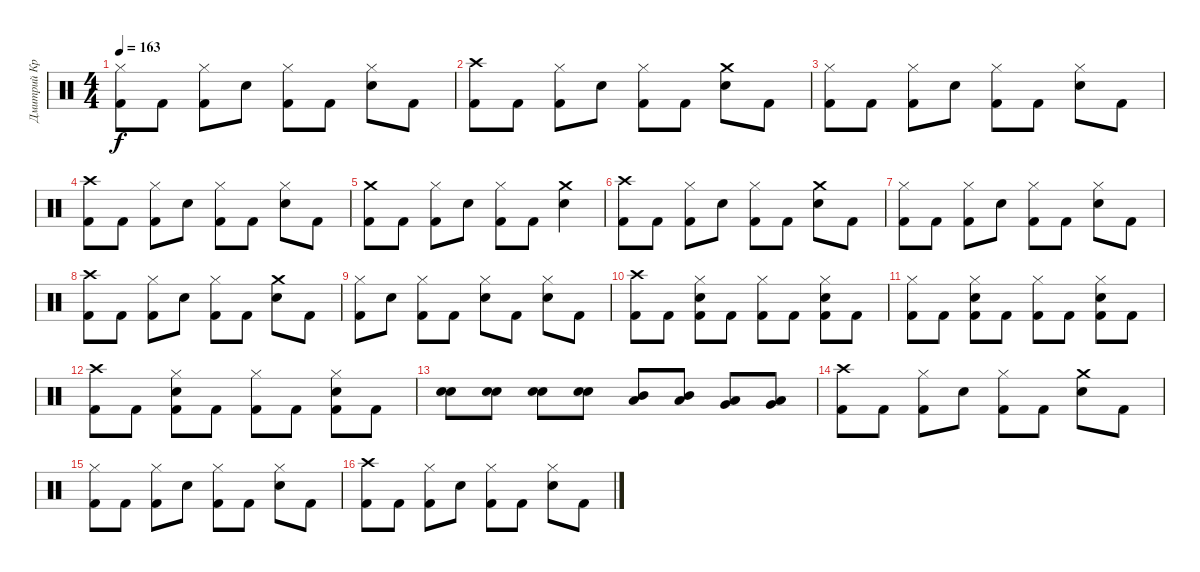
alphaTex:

\track ("Дмитрий Кривенков" "Дмитрий Кр") {instrument percussion}
\staff {score}
\articulation defaults
\ts (4 4)
\tempo 163
\clef neutral
\ks c
("Hi-Hat (closed)" "Kick (hit) 2").8{dy f} "Kick (hit) 2".8 ("Hi-Hat (closed)" "Kick (hit) 2").8 "Electric Snare (hit)".8 ("Hi-Hat (closed)" "Kick (hit) 2").8 "Kick (hit) 2".8 ("Hi-Hat (closed)" "Electric Snare (hit)").8 "Kick (hit) 2".8 |
("Crash high (hit)" "Kick (hit) 2").8 "Kick (hit) 2".8 ("Hi-Hat (closed)" "Kick (hit) 2").8 "Electric Snare (hit)".8 ("Hi-Hat (closed)" "Kick (hit) 2").8 "Kick (hit) 2".8 ("Crash medium (hit)" "Electric Snare (hit)").8 "Kick (hit) 2".8 |
("Hi-Hat (closed)" "Kick (hit) 2").8 "Kick (hit) 2".8 ("Hi-Hat (closed)" "Kick (hit) 2").8 "Electric Snare (hit)".8 ("Hi-Hat (closed)" "Kick (hit) 2").8 "Kick (hit) 2".8 ("Hi-Hat (closed)" "Electric Snare (hit)").8 "Kick (hit) 2".8 |
("Crash high (hit)" "Kick (hit) 2").8 "Kick (hit) 2".8 ("Hi-Hat (closed)" "Kick (hit) 2").8 "Electric Snare (hit)".8 ("Hi-Hat (closed)" "Kick (hit) 2").8 "Kick (hit) 2".8 ("Hi-Hat (closed)" "Electric Snare (hit)").8 "Kick (hit) 2".8 |
("Crash medium (hit)" "Kick (hit) 2").8 "Kick (hit) 2".8 ("Hi-Hat (closed)" "Kick (hit) 2").8 "Electric Snare (hit)".8 ("Hi-Hat (closed)" "Kick (hit) 2").8 "Kick (hit) 2".8 ("Crash medium (hit)" "Electric Snare (hit)").4 |
("Crash high (hit)" "Kick (hit) 2").8 "Kick (hit) 2".8 ("Hi-Hat (closed)" "Kick (hit) 2").8 "Electric Snare (hit)".8 ("Hi-Hat (closed)" "Kick (hit) 2").8 "Kick (hit) 2".8 ("Crash medium (hit)" "Electric Snare (hit)").8 "Kick (hit) 2".8 |
("Hi-Hat (closed)" "Kick (hit) 2").8 "Kick (hit) 2".8 ("Hi-Hat (closed)" "Kick (hit) 2").8 "Electric Snare (hit)".8 ("Hi-Hat (closed)" "Kick (hit) 2").8 "Kick (hit) 2".8 ("Hi-Hat (closed)" "Electric Snare (hit)").8 "Kick (hit) 2".8 |
("Crash high (hit)" "Kick (hit) 2").8 "Kick (hit) 2".8 ("Hi-Hat (closed)" "Kick (hit) 2").8 "Electric Snare (hit)".8 ("Hi-Hat (closed)" "Kick (hit) 2").8 "Kick (hit) 2".8 ("Crash medium (hit)" "Electric Snare (hit)").8 "Kick (hit) 2".8 |
("Hi-Hat (closed)" "Kick (hit) 2").8 "Electric Snare (hit)".8 ("Hi-Hat (closed)" "Kick (hit) 2").8 "Kick (hit) 2".8 ("Hi-Hat (closed)" "Electric Snare (hit)").8 "Kick (hit) 2".8 ("Hi-Hat (closed)" "Electric Snare (hit)").8 "Kick (hit) 2".8 |
("Crash high (hit)" "Kick (hit) 2").8 "Kick (hit) 2".8 ("Hi-Hat (closed)" "Electric Snare (hit)" "Kick (hit) 2").8 "Kick (hit) 2".8 ("Hi-Hat (closed)" "Kick (hit) 2").8 "Kick (hit) 2".8 ("Hi-Hat (closed)" "Electric Snare (hit)" "Kick (hit) 2").8 "Kick (hit) 2".8 |
("Hi-Hat (closed)" "Kick (hit) 2").8 "Kick (hit) 2".8 ("Hi-Hat (closed)" "Electric Snare (hit)" "Kick (hit) 2").8 "Kick (hit) 2".8 ("Hi-Hat (closed)" "Kick (hit) 2").8 "Kick (hit) 2".8 ("Hi-Hat (closed)" "Electric Snare (hit)" "Kick (hit) 2").8 "Kick (hit) 2".8 |
("Crash high (hit)" "Kick (hit) 2").8 "Kick (hit) 2".8 ("Hi-Hat (closed)" "Electric Snare (hit)" "Kick (hit) 2").8 "Kick (hit) 2".8 ("Hi-Hat (closed)" "Kick (hit) 2").8 "Kick (hit) 2".8 ("Hi-Hat (closed)" "Electric Snare (hit)" "Kick (hit) 2").8 "Kick (hit) 2".8 |
("Electric Snare (hit)" "Electric Snare (hit)").8 ("Electric Snare (hit)" "Electric Snare (hit)").8 ("Electric Snare (hit)" "Electric Snare (hit)").8 ("Electric Snare (hit)" "Electric Snare (hit)").8 ("Mid Tom (hit)" "Low Tom (hit)").8 ("Mid Tom (hit)" "Low Tom (hit)").8 ("Very Low Tom (hit)" "Low Floor Tom (hit)").8 ("Very Low Tom (hit)" "Low Floor Tom (hit)").8 |
("Crash high (hit)" "Kick (hit) 2").8 "Kick (hit) 2".8 ("Hi-Hat (closed)" "Kick (hit) 2").8 "Electric Snare (hit)".8 ("Hi-Hat (closed)" "Kick (hit) 2").8 "Kick (hit) 2".8 ("Crash medium (hit)" "Electric Snare (hit)").8 "Kick (hit) 2".8 |
("Hi-Hat (closed)" "Kick (hit) 2").8 "Kick (hit) 2".8 ("Hi-Hat (closed)" "Kick (hit) 2").8 "Electric Snare (hit)".8 ("Hi-Hat (closed)" "Kick (hit) 2").8 "Kick (hit) 2".8 ("Hi-Hat (closed)" "Electric Snare (hit)").8 "Kick (hit) 2".8 |
("Crash high (hit)" "Kick (hit) 2").8 "Kick (hit) 2".8 ("Hi-Hat (closed)" "Kick (hit) 2").8 "Electric Snare (hit)".8 ("Hi-Hat (closed)" "Kick (hit) 2").8 "Kick (hit) 2".8 ("Hi-Hat (closed)" "Electric Snare (hit)").8 "Kick (hit) 2".8
